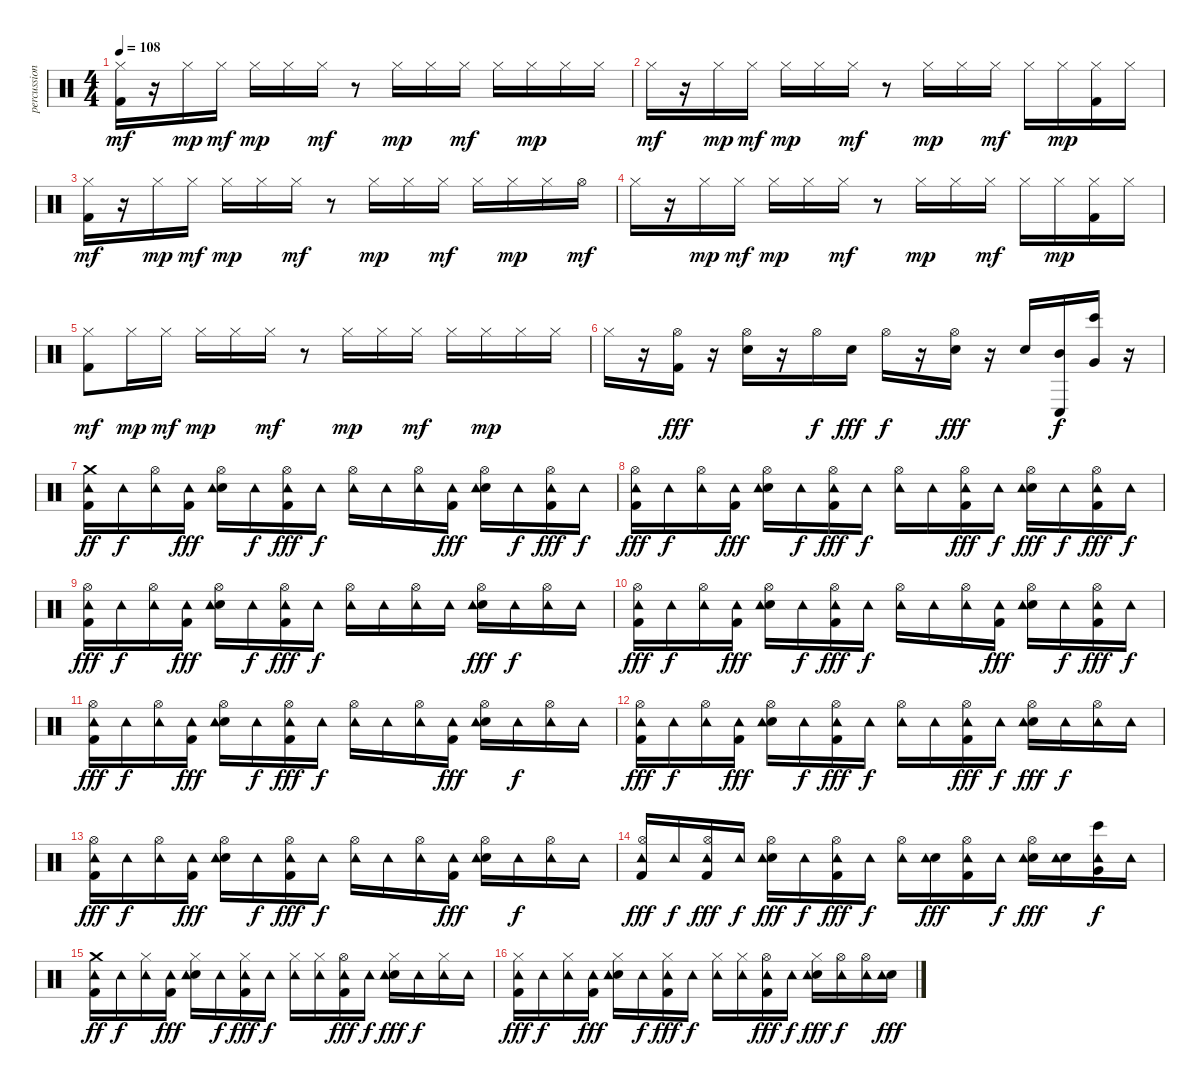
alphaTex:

\track ("percussion" "percussion") {instrument percussion}
\staff {score}
\articulation defaults
\ts (4 4)
\tempo 108
\clef neutral
\ks c
("Kick (hit) 2" "Hi-Hat (closed)").16{dy mf} r.16 "Hi-Hat (closed)".16{dy mp} "Hi-Hat (closed)".16{dy mf} "Hi-Hat (closed)".16{dy mp} "Hi-Hat (closed)".16 "Hi-Hat (closed)".16{dy mf} r.8 "Hi-Hat (closed)".16{dy mp} "Hi-Hat (closed)".16 "Hi-Hat (closed)".16{dy mf} "Hi-Hat (closed)".16 "Hi-Hat (closed)".16{dy mp} "Hi-Hat (closed)".16 "Hi-Hat (closed)".16 |
"Hi-Hat (closed)".16{dy mf} r.16 "Hi-Hat (closed)".16{dy mp} "Hi-Hat (closed)".16{dy mf} "Hi-Hat (closed)".16{dy mp} "Hi-Hat (closed)".16 "Hi-Hat (closed)".16{dy mf} r.8 "Hi-Hat (closed)".16{dy mp} "Hi-Hat (closed)".16 "Hi-Hat (closed)".16{dy mf} "Hi-Hat (closed)".16 "Hi-Hat (closed)".16{dy mp} ("Kick (hit) 2" "Hi-Hat (closed)").16 "Hi-Hat (closed)".16 |
("Kick (hit) 2" "Hi-Hat (closed)").16{dy mf} r.16 "Hi-Hat (closed)".16{dy mp} "Hi-Hat (closed)".16{dy mf} "Hi-Hat (closed)".16{dy mp} "Hi-Hat (closed)".16 "Hi-Hat (closed)".16{dy mf} r.8 "Hi-Hat (closed)".16{dy mp} "Hi-Hat (closed)".16 "Hi-Hat (closed)".16{dy mf} "Hi-Hat (closed)".16 "Hi-Hat (closed)".16{dy mp} "Hi-Hat (closed)".16 "Hi-Hat (open)".16{dy mf} |
"Hi-Hat (closed)".16 r.16 "Hi-Hat (closed)".16{dy mp} "Hi-Hat (closed)".16{dy mf} "Hi-Hat (closed)".16{dy mp} "Hi-Hat (closed)".16 "Hi-Hat (closed)".16{dy mf} r.8 "Hi-Hat (closed)".16{dy mp} "Hi-Hat (closed)".16 "Hi-Hat (closed)".16{dy mf} "Hi-Hat (closed)".16 "Hi-Hat (closed)".16{dy mp} ("Kick (hit) 2" "Hi-Hat (closed)").16 "Hi-Hat (closed)".16 |
("Kick (hit) 2" "Hi-Hat (closed)").8{dy mf} "Hi-Hat (closed)".16{dy mp} "Hi-Hat (closed)".16{dy mf} "Hi-Hat (closed)".16{dy mp} "Hi-Hat (closed)".16 "Hi-Hat (closed)".16{dy mf} r.8 "Hi-Hat (closed)".16{dy mp} "Hi-Hat (closed)".16 "Hi-Hat (closed)".16{dy mf} "Hi-Hat (closed)".16 "Hi-Hat (closed)".16{dy mp} "Hi-Hat (closed)".16 "Hi-Hat (closed)".16 |
"Hi-Hat (closed)".16 r.16 ("Hi-Hat (open)" "Kick (hit) 2").16{dy fff} r.16 ("Hi-Hat (open)" "Electric Snare (hit)").16 r.16 "Hi-Hat (open)".16{dy f} "Electric Snare (hit)".16{dy fff} "Hi-Hat (open)".16{dy f} r.16 ("Hi-Hat (open)" "Electric Snare (hit)").16{dy fff} r.16 "Electric Snare (hit)".16 ("Conga low (hit)" "Mid Tom (hit)").16{dy f} ("Bongo High (hit)" "Very Low Tom (hit)").16 r.16 |
("Kick (hit) 2" "Crash medium (hit)" "Tambourine (hit)").16{dy ff} "Tambourine (hit)".16{dy f} ("Hi-Hat (open)" "Tambourine (hit)").16 ("Kick (hit) 2" "Tambourine (hit)").16{dy fff} ("Hi-Hat (open)" "Electric Snare (hit)" "Tambourine (hit)").16 "Tambourine (hit)".16{dy f} ("Hi-Hat (open)" "Kick (hit) 2" "Tambourine (hit)").16{dy fff} "Tambourine (hit)".16{dy f} ("Hi-Hat (open)" "Tambourine (hit)").16 "Tambourine (hit)".16 ("Hi-Hat (open)" "Tambourine (hit)").16 ("Kick (hit) 2" "Tambourine (hit)").16{dy fff} ("Hi-Hat (open)" "Electric Snare (hit)" "Tambourine (hit)").16 "Tambourine (hit)".16{dy f} ("Kick (hit) 2" "Hi-Hat (open)" "Tambourine (hit)").16{dy fff} "Tambourine (hit)".16{dy f} |
("Hi-Hat (open)" "Kick (hit) 2" "Tambourine (hit)").16{dy fff} "Tambourine (hit)".16{dy f} ("Hi-Hat (open)" "Tambourine (hit)").16 ("Kick (hit) 2" "Tambourine (hit)").16{dy fff} ("Hi-Hat (open)" "Electric Snare (hit)" "Tambourine (hit)").16 "Tambourine (hit)".16{dy f} ("Hi-Hat (open)" "Kick (hit) 2" "Tambourine (hit)").16{dy fff} "Tambourine (hit)".16{dy f} ("Hi-Hat (open)" "Tambourine (hit)").16 "Tambourine (hit)".16 ("Kick (hit) 2" "Hi-Hat (open)" "Tambourine (hit)").16{dy fff} "Tambourine (hit)".16{dy f} ("Hi-Hat (open)" "Electric Snare (hit)" "Tambourine (hit)").16{dy fff} "Tambourine (hit)".16{dy f} ("Kick (hit) 2" "Hi-Hat (open)" "Tambourine (hit)").16{dy fff} "Tambourine (hit)".16{dy f} |
("Kick (hit) 2" "Hi-Hat (open)" "Tambourine (hit)").16{dy fff} "Tambourine (hit)".16{dy f} ("Hi-Hat (open)" "Tambourine (hit)").16 ("Kick (hit) 2" "Tambourine (hit)").16{dy fff} ("Hi-Hat (open)" "Electric Snare (hit)" "Tambourine (hit)").16 "Tambourine (hit)".16{dy f} ("Hi-Hat (open)" "Kick (hit) 2" "Tambourine (hit)").16{dy fff} "Tambourine (hit)".16{dy f} ("Hi-Hat (open)" "Tambourine (hit)").16 "Tambourine (hit)".16 ("Hi-Hat (open)" "Tambourine (hit)").16 "Tambourine (hit)".16 ("Hi-Hat (open)" "Electric Snare (hit)" "Tambourine (hit)").16{dy fff} "Tambourine (hit)".16{dy f} ("Hi-Hat (open)" "Tambourine (hit)").16 "Tambourine (hit)".16 |
("Hi-Hat (open)" "Kick (hit) 2" "Tambourine (hit)").16{dy fff} "Tambourine (hit)".16{dy f} ("Hi-Hat (open)" "Tambourine (hit)").16 ("Kick (hit) 2" "Tambourine (hit)").16{dy fff} ("Hi-Hat (open)" "Electric Snare (hit)" "Tambourine (hit)").16 "Tambourine (hit)".16{dy f} ("Hi-Hat (open)" "Kick (hit) 2" "Tambourine (hit)").16{dy fff} "Tambourine (hit)".16{dy f} ("Hi-Hat (open)" "Tambourine (hit)").16 "Tambourine (hit)".16 ("Hi-Hat (open)" "Tambourine (hit)").16 ("Kick (hit) 2" "Tambourine (hit)").16{dy fff} ("Hi-Hat (open)" "Electric Snare (hit)" "Tambourine (hit)").16 "Tambourine (hit)".16{dy f} ("Kick (hit) 2" "Hi-Hat (open)" "Tambourine (hit)").16{dy fff} "Tambourine (hit)".16{dy f} |
("Kick (hit) 2" "Hi-Hat (open)" "Tambourine (hit)").16{dy fff} "Tambourine (hit)".16{dy f} ("Hi-Hat (open)" "Tambourine (hit)").16 ("Kick (hit) 2" "Tambourine (hit)").16{dy fff} ("Hi-Hat (open)" "Electric Snare (hit)" "Tambourine (hit)").16 "Tambourine (hit)".16{dy f} ("Hi-Hat (open)" "Kick (hit) 2" "Tambourine (hit)").16{dy fff} "Tambourine (hit)".16{dy f} ("Hi-Hat (open)" "Tambourine (hit)").16 "Tambourine (hit)".16 ("Hi-Hat (open)" "Tambourine (hit)").16 ("Kick (hit) 2" "Tambourine (hit)").16{dy fff} ("Hi-Hat (open)" "Electric Snare (hit)" "Tambourine (hit)").16 "Tambourine (hit)".16{dy f} ("Hi-Hat (open)" "Tambourine (hit)").16 "Tambourine (hit)".16 |
("Hi-Hat (open)" "Kick (hit) 2" "Tambourine (hit)").16{dy fff} "Tambourine (hit)".16{dy f} ("Hi-Hat (open)" "Tambourine (hit)").16 ("Kick (hit) 2" "Tambourine (hit)").16{dy fff} ("Hi-Hat (open)" "Electric Snare (hit)" "Tambourine (hit)").16 "Tambourine (hit)".16{dy f} ("Hi-Hat (open)" "Kick (hit) 2" "Tambourine (hit)").16{dy fff} "Tambourine (hit)".16{dy f} ("Hi-Hat (open)" "Tambourine (hit)").16 "Tambourine (hit)".16 ("Kick (hit) 2" "Hi-Hat (open)" "Tambourine (hit)").16{dy fff} "Tambourine (hit)".16{dy f} ("Hi-Hat (open)" "Electric Snare (hit)" "Tambourine (hit)").16{dy fff} "Tambourine (hit)".16{dy f} ("Hi-Hat (open)" "Tambourine (hit)").16 "Tambourine (hit)".16 |
("Kick (hit) 2" "Hi-Hat (open)" "Tambourine (hit)").16{dy fff} "Tambourine (hit)".16{dy f} ("Hi-Hat (open)" "Tambourine (hit)").16 ("Kick (hit) 2" "Tambourine (hit)").16{dy fff} ("Hi-Hat (open)" "Electric Snare (hit)" "Tambourine (hit)").16 "Tambourine (hit)".16{dy f} ("Hi-Hat (open)" "Kick (hit) 2" "Tambourine (hit)").16{dy fff} "Tambourine (hit)".16{dy f} ("Hi-Hat (open)" "Tambourine (hit)").16 "Tambourine (hit)".16 ("Hi-Hat (open)" "Tambourine (hit)").16 ("Kick (hit) 2" "Tambourine (hit)").16{dy fff} ("Hi-Hat (open)" "Electric Snare (hit)" "Tambourine (hit)").16 "Tambourine (hit)".16{dy f} ("Hi-Hat (open)" "Tambourine (hit)").16 "Tambourine (hit)".16 |
("Hi-Hat (open)" "Kick (hit) 2" "Tambourine (hit)").16{dy fff} "Tambourine (hit)".16{dy f} ("Kick (hit) 2" "Hi-Hat (open)" "Tambourine (hit)").16{dy fff} "Tambourine (hit)".16{dy f} ("Hi-Hat (open)" "Electric Snare (hit)" "Tambourine (hit)").16{dy fff} "Tambourine (hit)".16{dy f} ("Hi-Hat (open)" "Kick (hit) 2" "Tambourine (hit)").16{dy fff} "Tambourine (hit)".16{dy f} ("Hi-Hat (open)" "Tambourine (hit)").16 ("Electric Snare (hit)" "Tambourine (hit)").16{dy fff} ("Kick (hit) 2" "Hi-Hat (open)" "Tambourine (hit)").16 "Tambourine (hit)".16{dy f} ("Hi-Hat (open)" "Electric Snare (hit)" "Tambourine (hit)").16{dy fff} ("Electric Snare (hit)" "Tambourine (hit)").16 ("Tambourine (hit)" "Bongo High (hit)" "Very Low Tom (hit)").16{dy f} "Tambourine (hit)".16 |
("Kick (hit) 2" "Crash medium (hit)" "Tambourine (hit)").16{dy ff} "Tambourine (hit)".16{dy f} ("Hi-Hat (closed)" "Tambourine (hit)").16 ("Kick (hit) 2" "Tambourine (hit)").16{dy fff} ("Hi-Hat (closed)" "Electric Snare (hit)" "Tambourine (hit)").16 "Tambourine (hit)".16{dy f} ("Hi-Hat (closed)" "Kick (hit) 2" "Tambourine (hit)").16{dy fff} "Tambourine (hit)".16{dy f} ("Hi-Hat (closed)" "Tambourine (hit)").16 ("Hi-Hat (closed)" "Tambourine (hit)").16 ("Kick (hit) 2" "Hi-Hat (open)" "Tambourine (hit)").16{dy fff} "Tambourine (hit)".16{dy f} ("Hi-Hat (closed)" "Electric Snare (hit)" "Tambourine (hit)").16{dy fff} "Tambourine (hit)".16{dy f} ("Hi-Hat (closed)" "Tambourine (hit)").16 "Tambourine (hit)".16 |
("Hi-Hat (closed)" "Kick (hit) 2" "Tambourine (hit)").16{dy fff} "Tambourine (hit)".16{dy f} ("Hi-Hat (closed)" "Tambourine (hit)").16 ("Kick (hit) 2" "Tambourine (hit)").16{dy fff} ("Hi-Hat (closed)" "Electric Snare (hit)" "Tambourine (hit)").16 "Tambourine (hit)".16{dy f} ("Hi-Hat (closed)" "Kick (hit) 2" "Tambourine (hit)").16{dy fff} "Tambourine (hit)".16{dy f} ("Hi-Hat (closed)" "Tambourine (hit)").16 ("Hi-Hat (closed)" "Tambourine (hit)").16 ("Kick (hit) 2" "Hi-Hat (open)" "Tambourine (hit)").16{dy fff} "Tambourine (hit)".16{dy f} ("Hi-Hat (closed)" "Electric Snare (hit)" "Tambourine (hit)").16{dy fff} ("Hi-Hat (open)" "Tambourine (hit)").16{dy f} ("Hi-Hat (open)" "Tambourine (hit)").16 ("Electric Snare (hit)" "Tambourine (hit)").16{dy fff}
